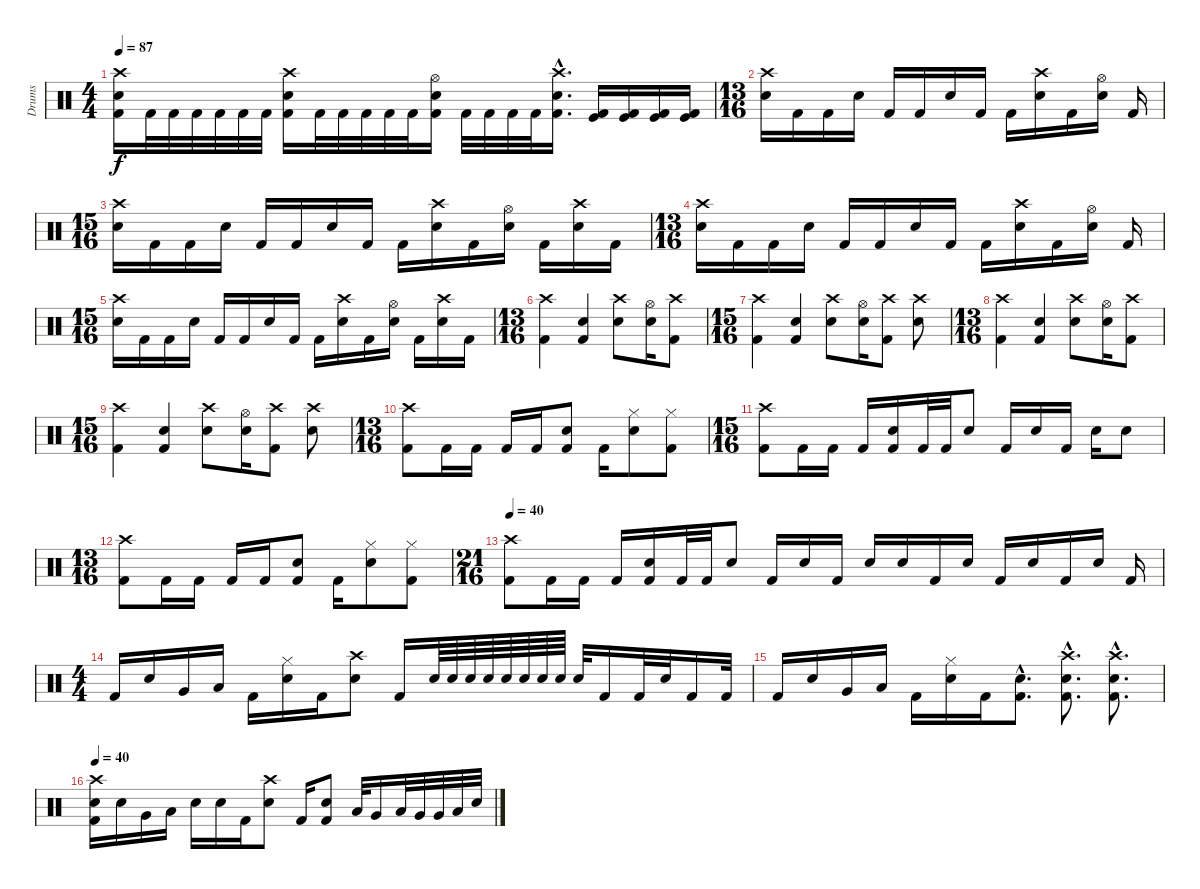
\track ("Drums" "Drums") {instrument percussion}
\staff {score}
\articulation defaults
\ts (4 4)
\tempo 87
\clef neutral
\ks c
("Crash high (hit)" "Snare (hit) 2" "Kick (hit) 2").16{dy f} "Kick (hit) 2".32 "Kick (hit) 2".32 "Kick (hit) 2".32 "Kick (hit) 2".32 "Kick (hit) 2".32 "Kick (hit) 2".32 ("Crash high (hit)" "Snare (hit) 2" "Kick (hit) 2").16 "Kick (hit) 2".32 "Kick (hit) 2".32 "Kick (hit) 2".32 "Kick (hit) 2".32 "Kick (hit) 2".32 ("Hi-Hat (open)" "Snare (hit) 2" "Kick (hit) 2").16 "Kick (hit) 2".32 "Kick (hit) 2".32 "Kick (hit) 2".32 "Kick (hit) 2".32 ("Crash high (hit)"{hac} "Snare (hit) 2"{hac} "Kick (hit) 2"{hac}).16{d} ("Kick (hit)" "Kick (hit) 2").16 ("Kick (hit)" "Kick (hit) 2").16 ("Kick (hit)" "Kick (hit) 2").16 ("Kick (hit)" "Kick (hit) 2").16 |
\ts (13 16)
("Crash high (hit)" "Snare (hit) 2").16 "Kick (hit) 2".16 "Kick (hit) 2".16 "Snare (hit) 2".16 "Kick (hit) 2".16 "Kick (hit) 2".16 "Snare (hit) 2".16 "Kick (hit) 2".16 "Kick (hit) 2".16 ("Crash high (hit)" "Snare (hit) 2").16 "Kick (hit) 2".16 ("Hi-Hat (open)" "Snare (hit) 2").16 "Kick (hit) 2".16 |
\ts (15 16)
("Crash high (hit)" "Snare (hit) 2").16 "Kick (hit) 2".16 "Kick (hit) 2".16 "Snare (hit) 2".16 "Kick (hit) 2".16 "Kick (hit) 2".16 "Snare (hit) 2".16 "Kick (hit) 2".16 "Kick (hit) 2".16 ("Crash high (hit)" "Snare (hit) 2").16 "Kick (hit) 2".16 ("Hi-Hat (open)" "Snare (hit) 2").16 "Kick (hit) 2".16 ("Crash high (hit)" "Snare (hit) 2").16 "Kick (hit) 2".16 |
\ts (13 16)
("Crash high (hit)" "Snare (hit) 2").16 "Kick (hit) 2".16 "Kick (hit) 2".16 "Snare (hit) 2".16 "Kick (hit) 2".16 "Kick (hit) 2".16 "Snare (hit) 2".16 "Kick (hit) 2".16 "Kick (hit) 2".16 ("Crash high (hit)" "Snare (hit) 2").16 "Kick (hit) 2".16 ("Hi-Hat (open)" "Snare (hit) 2").16 "Kick (hit) 2".16 |
\ts (15 16)
("Crash high (hit)" "Snare (hit) 2").16 "Kick (hit) 2".16 "Kick (hit) 2".16 "Snare (hit) 2".16 "Kick (hit) 2".16 "Kick (hit) 2".16 "Snare (hit) 2".16 "Kick (hit) 2".16 "Kick (hit) 2".16 ("Crash high (hit)" "Snare (hit) 2").16 "Kick (hit) 2".16 ("Hi-Hat (open)" "Snare (hit) 2").16 "Kick (hit) 2".16 ("Crash high (hit)" "Snare (hit) 2").16 "Kick (hit) 2".16 |
\ts (13 16)
("Crash high (hit)" "Kick (hit) 2").4 ("Snare (hit) 2" "Kick (hit) 2").4 ("Crash high (hit)" "Snare (hit) 2").8 ("Hi-Hat (open)" "Snare (hit) 2").16 ("Crash high (hit)" "Kick (hit) 2").8 |
\ts (15 16)
("Crash high (hit)" "Kick (hit) 2").4 ("Snare (hit) 2" "Kick (hit) 2").4 ("Crash high (hit)" "Snare (hit) 2").8 ("Hi-Hat (open)" "Snare (hit) 2").16 ("Crash high (hit)" "Kick (hit) 2").8 ("Crash high (hit)" "Snare (hit) 2").8 |
\ts (13 16)
("Crash high (hit)" "Kick (hit) 2").4 ("Snare (hit) 2" "Kick (hit) 2").4 ("Crash high (hit)" "Snare (hit) 2").8 ("Hi-Hat (open)" "Snare (hit) 2").16 ("Crash high (hit)" "Kick (hit) 2").8 |
\ts (15 16)
("Crash high (hit)" "Kick (hit) 2").4 ("Snare (hit) 2" "Kick (hit) 2").4 ("Crash high (hit)" "Snare (hit) 2").8 ("Hi-Hat (open)" "Snare (hit) 2").16 ("Crash high (hit)" "Kick (hit) 2").8 ("Crash high (hit)" "Snare (hit) 2").8 |
\ts (13 16)
("Crash high (hit)" "Kick (hit) 2").8 "Kick (hit) 2".16 "Kick (hit) 2".16 "Kick (hit) 2".16 "Kick (hit) 2".16 ("Snare (hit) 2" "Kick (hit) 2").8 "Kick (hit) 2".16 ("Hi-Hat (closed)" "Snare (hit) 2").8 ("Hi-Hat (closed)" "Kick (hit) 2").8 |
\ts (15 16)
("Crash high (hit)" "Kick (hit) 2").8 "Kick (hit) 2".16 "Kick (hit) 2".16 "Kick (hit) 2".16 ("Snare (hit) 2" "Kick (hit) 2").16 "Kick (hit) 2".32 "Kick (hit) 2".32 "Snare (hit) 2".8 "Kick (hit) 2".16 "Snare (hit) 2".16 "Kick (hit) 2".16 "Electric Snare (hit)".16 "Snare (hit) 2".8 |
\ts (13 16)
("Crash high (hit)" "Kick (hit) 2").8 "Kick (hit) 2".16 "Kick (hit) 2".16 "Kick (hit) 2".16 "Kick (hit) 2".16 ("Snare (hit) 2" "Kick (hit) 2").8 "Kick (hit) 2".16 ("Hi-Hat (closed)" "Snare (hit) 2").8 ("Hi-Hat (closed)" "Kick (hit) 2").8 |
\ts (21 16)
\tempo 40
("Crash high (hit)" "Kick (hit) 2").8 "Kick (hit) 2".16 "Kick (hit) 2".16 "Kick (hit) 2".16 ("Snare (hit) 2" "Kick (hit) 2").16 "Kick (hit) 2".32 "Kick (hit) 2".32 "Snare (hit) 2".8 "Kick (hit) 2".16 "Snare (hit) 2".16 "Kick (hit) 2".16 "Electric Snare (hit)".16 "Snare (hit) 2".16 "Kick (hit) 2".16 "Snare (hit) 2".16 "Kick (hit) 2".16 "Snare (hit) 2".16 "Kick (hit) 2".16 "Snare (hit) 2".16 "Kick (hit) 2".16 |
\ts (4 4)
"Kick (hit) 2".16 "Snare (hit) 2".16 "Very Low Tom (hit)".16 "Low Floor Tom (hit)".16 "Kick (hit) 2".16 ("Hi-Hat (closed)" "Snare (hit) 2").16 "Kick (hit) 2".16 ("Crash high (hit)" "Snare (hit) 2").8 "Kick (hit) 2".16 "Snare (hit) 2".64 "Snare (hit) 2".64 "Snare (hit) 2".64 "Snare (hit) 2".64 "Snare (hit) 2".64 "Snare (hit) 2".64 "Snare (hit) 2".64 "Snare (hit) 2".64 "Snare (hit) 2".32 "Kick (hit) 2".16 "Kick (hit) 2".32 "Snare (hit) 2".32 "Kick (hit) 2".16 "Kick (hit) 2".32 |
"Kick (hit) 2".16 "Snare (hit) 2".16 "Very Low Tom (hit)".16 "Low Floor Tom (hit)".16 "Kick (hit) 2".16 ("Hi-Hat (closed)" "Snare (hit) 2").16 "Kick (hit) 2".16 ("Snare (hit) 2"{hac} "Kick (hit) 2"{hac}).8{d} ("Crash high (hit)"{hac} "Snare (hit) 2"{hac} "Kick (hit) 2"{hac}).8{d} ("Crash high (hit)"{hac} "Snare (hit) 2"{hac} "Kick (hit) 2"{hac}).8{d} |
\tempo 40
("Crash high (hit)" "Snare (hit) 2" "Kick (hit) 2").16 "Snare (hit) 2".16 "Very Low Tom (hit)".16 "Low Floor Tom (hit)".16 "Snare (hit) 2".16 "Snare (hit) 2".16 "Kick (hit) 2".16 ("Crash high (hit)" "Snare (hit) 2").8 "Kick (hit) 2".16 ("Snare (hit) 2" "Kick (hit) 2").8 "Low Floor Tom (hit)".32 "Very Low Tom (hit)".16 "Low Floor Tom (hit)".32 "Very Low Tom (hit)".32 "Very Low Tom (hit)".32 "Low Floor Tom (hit)".32 "Snare (hit)".32
